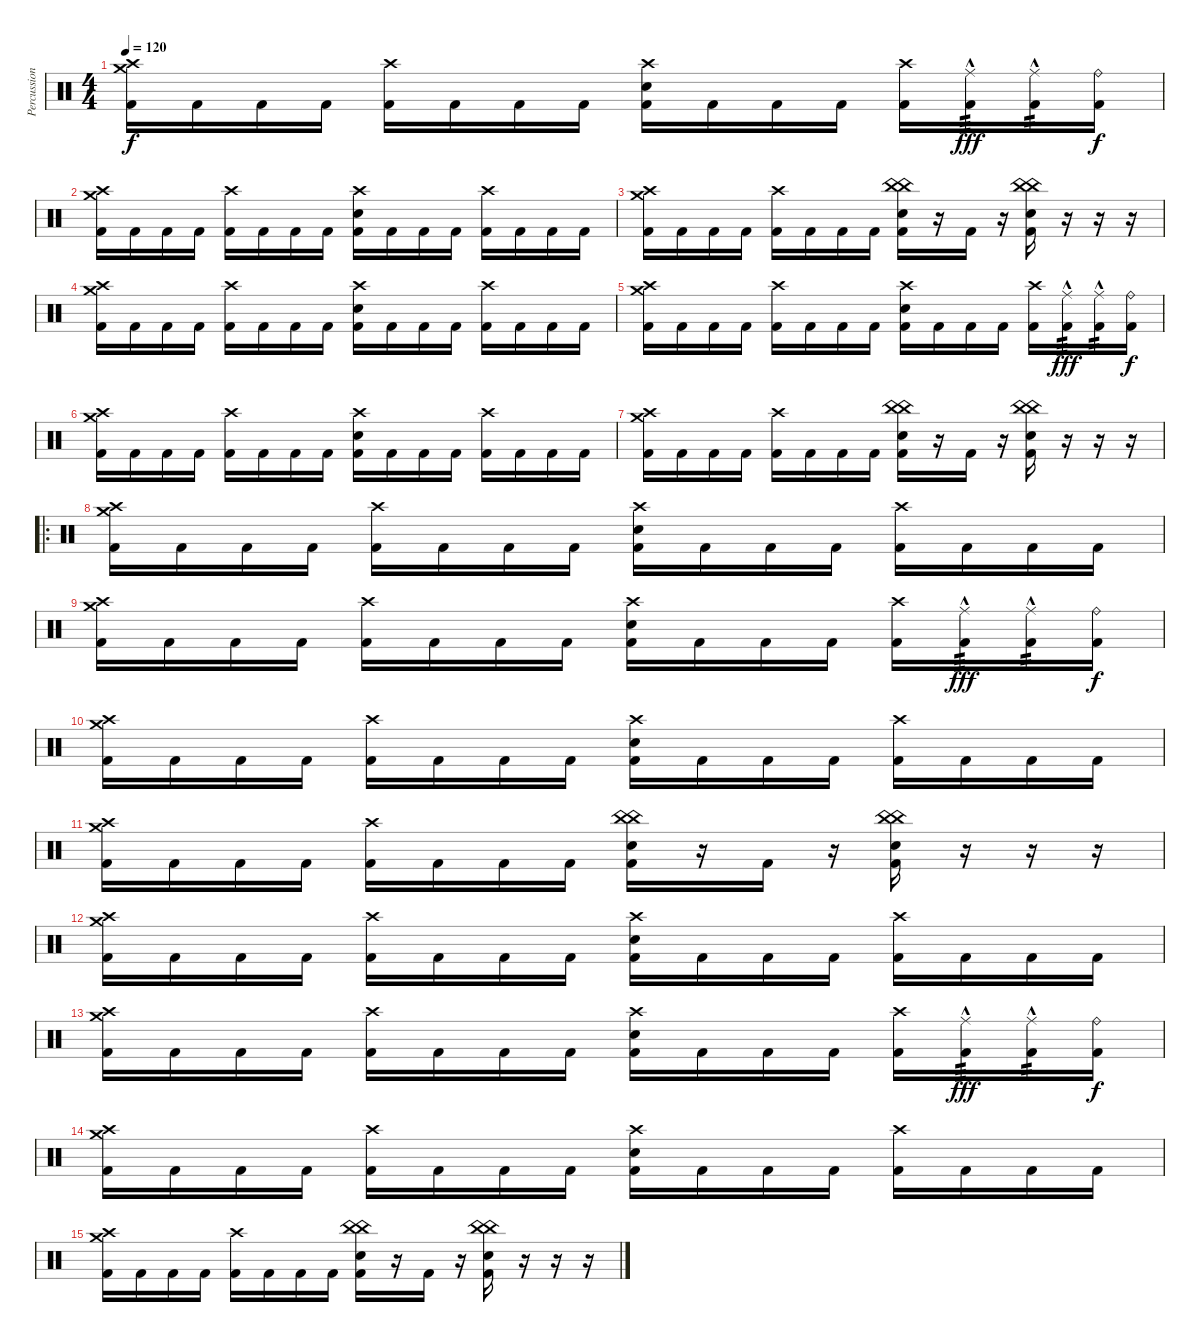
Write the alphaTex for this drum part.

\track ("Percussion" "Percussion") {instrument percussion bank 177}
\staff
\articulation defaults
\ts (4 4)
\tempo 120
\clef neutral
\ks c
("Crash medium (hit)" "Crash high (hit)" "Kick (hit) 2").16{dy f} "Kick (hit) 2".16 "Kick (hit) 2".16 "Kick (hit) 2".16 ("Crash high (hit)" "Kick (hit) 2").16 "Kick (hit) 2".16 "Kick (hit) 2".16 "Kick (hit) 2".16 ("Crash high (hit)" "Electric Snare (hit)" "Kick (hit) 2").16 "Kick (hit) 2".16 "Kick (hit) 2".16 "Kick (hit) 2".16 ("Crash high (hit)" "Kick (hit) 2").16 ("Ride (middle)"{hac} "Kick (hit) 2").16{tp 3 dy fff} ("Ride (middle)"{hac} "Kick (hit) 2").16{tp 2} ("Ride (bell)" "Kick (hit) 2").16{dy f} |
("Crash medium (hit)" "Crash high (hit)" "Kick (hit) 2").16 "Kick (hit) 2".16 "Kick (hit) 2".16 "Kick (hit) 2".16 ("Crash high (hit)" "Kick (hit) 2").16 "Kick (hit) 2".16 "Kick (hit) 2".16 "Kick (hit) 2".16 ("Crash high (hit)" "Electric Snare (hit)" "Kick (hit) 2").16 "Kick (hit) 2".16 "Kick (hit) 2".16 "Kick (hit) 2".16 ("Crash high (hit)" "Kick (hit) 2").16 "Kick (hit) 2".16 "Kick (hit) 2".16 "Kick (hit) 2".16 |
("Crash medium (hit)" "Crash high (hit)" "Kick (hit) 2").16 "Kick (hit) 2".16 "Kick (hit) 2".16 "Kick (hit) 2".16 ("Crash high (hit)" "Kick (hit) 2").16 "Kick (hit) 2".16 "Kick (hit) 2".16 "Kick (hit) 2".16 ("China (hit)" "China (hit)" "Electric Snare (hit)" "Kick (hit) 2").16 r.16 "Kick (hit) 2".16 r.16 ("China (hit)" "China (hit)" "Electric Snare (hit)" "Kick (hit) 2").16 r.16 r.16 r.16 |
("Crash medium (hit)" "Crash high (hit)" "Kick (hit) 2").16 "Kick (hit) 2".16 "Kick (hit) 2".16 "Kick (hit) 2".16 ("Crash high (hit)" "Kick (hit) 2").16 "Kick (hit) 2".16 "Kick (hit) 2".16 "Kick (hit) 2".16 ("Crash high (hit)" "Electric Snare (hit)" "Kick (hit) 2").16 "Kick (hit) 2".16 "Kick (hit) 2".16 "Kick (hit) 2".16 ("Crash high (hit)" "Kick (hit) 2").16 "Kick (hit) 2".16 "Kick (hit) 2".16 "Kick (hit) 2".16 |
("Crash medium (hit)" "Crash high (hit)" "Kick (hit) 2").16 "Kick (hit) 2".16 "Kick (hit) 2".16 "Kick (hit) 2".16 ("Crash high (hit)" "Kick (hit) 2").16 "Kick (hit) 2".16 "Kick (hit) 2".16 "Kick (hit) 2".16 ("Crash high (hit)" "Electric Snare (hit)" "Kick (hit) 2").16 "Kick (hit) 2".16 "Kick (hit) 2".16 "Kick (hit) 2".16 ("Crash high (hit)" "Kick (hit) 2").16 ("Ride (middle)"{hac} "Kick (hit) 2").16{tp 3 dy fff} ("Ride (middle)"{hac} "Kick (hit) 2").16{tp 2} ("Ride (bell)" "Kick (hit) 2").16{dy f} |
("Crash medium (hit)" "Crash high (hit)" "Kick (hit) 2").16 "Kick (hit) 2".16 "Kick (hit) 2".16 "Kick (hit) 2".16 ("Crash high (hit)" "Kick (hit) 2").16 "Kick (hit) 2".16 "Kick (hit) 2".16 "Kick (hit) 2".16 ("Crash high (hit)" "Electric Snare (hit)" "Kick (hit) 2").16 "Kick (hit) 2".16 "Kick (hit) 2".16 "Kick (hit) 2".16 ("Crash high (hit)" "Kick (hit) 2").16 "Kick (hit) 2".16 "Kick (hit) 2".16 "Kick (hit) 2".16 |
("Crash medium (hit)" "Crash high (hit)" "Kick (hit) 2").16 "Kick (hit) 2".16 "Kick (hit) 2".16 "Kick (hit) 2".16 ("Crash high (hit)" "Kick (hit) 2").16 "Kick (hit) 2".16 "Kick (hit) 2".16 "Kick (hit) 2".16 ("China (hit)" "China (hit)" "Electric Snare (hit)" "Kick (hit) 2").16 r.16 "Kick (hit) 2".16 r.16 ("China (hit)" "China (hit)" "Electric Snare (hit)" "Kick (hit) 2").16 r.16 r.16 r.16 |
\ro
("Crash medium (hit)" "Crash high (hit)" "Kick (hit) 2").16 "Kick (hit) 2".16 "Kick (hit) 2".16 "Kick (hit) 2".16 ("Crash high (hit)" "Kick (hit) 2").16 "Kick (hit) 2".16 "Kick (hit) 2".16 "Kick (hit) 2".16 ("Crash high (hit)" "Electric Snare (hit)" "Kick (hit) 2").16 "Kick (hit) 2".16 "Kick (hit) 2".16 "Kick (hit) 2".16 ("Crash high (hit)" "Kick (hit) 2").16 "Kick (hit) 2".16 "Kick (hit) 2".16 "Kick (hit) 2".16 |
("Crash medium (hit)" "Crash high (hit)" "Kick (hit) 2").16 "Kick (hit) 2".16 "Kick (hit) 2".16 "Kick (hit) 2".16 ("Crash high (hit)" "Kick (hit) 2").16 "Kick (hit) 2".16 "Kick (hit) 2".16 "Kick (hit) 2".16 ("Crash high (hit)" "Electric Snare (hit)" "Kick (hit) 2").16 "Kick (hit) 2".16 "Kick (hit) 2".16 "Kick (hit) 2".16 ("Crash high (hit)" "Kick (hit) 2").16 ("Ride (middle)"{hac} "Kick (hit) 2").16{tp 3 dy fff} ("Ride (middle)"{hac} "Kick (hit) 2").16{tp 2} ("Ride (bell)" "Kick (hit) 2").16{dy f} |
("Crash medium (hit)" "Crash high (hit)" "Kick (hit) 2").16 "Kick (hit) 2".16 "Kick (hit) 2".16 "Kick (hit) 2".16 ("Crash high (hit)" "Kick (hit) 2").16 "Kick (hit) 2".16 "Kick (hit) 2".16 "Kick (hit) 2".16 ("Crash high (hit)" "Electric Snare (hit)" "Kick (hit) 2").16 "Kick (hit) 2".16 "Kick (hit) 2".16 "Kick (hit) 2".16 ("Crash high (hit)" "Kick (hit) 2").16 "Kick (hit) 2".16 "Kick (hit) 2".16 "Kick (hit) 2".16 |
("Crash medium (hit)" "Crash high (hit)" "Kick (hit) 2").16 "Kick (hit) 2".16 "Kick (hit) 2".16 "Kick (hit) 2".16 ("Crash high (hit)" "Kick (hit) 2").16 "Kick (hit) 2".16 "Kick (hit) 2".16 "Kick (hit) 2".16 ("China (hit)" "China (hit)" "Electric Snare (hit)" "Kick (hit) 2").16 r.16 "Kick (hit) 2".16 r.16 ("China (hit)" "China (hit)" "Electric Snare (hit)" "Kick (hit) 2").16 r.16 r.16 r.16 |
("Crash medium (hit)" "Crash high (hit)" "Kick (hit) 2").16 "Kick (hit) 2".16 "Kick (hit) 2".16 "Kick (hit) 2".16 ("Crash high (hit)" "Kick (hit) 2").16 "Kick (hit) 2".16 "Kick (hit) 2".16 "Kick (hit) 2".16 ("Crash high (hit)" "Electric Snare (hit)" "Kick (hit) 2").16 "Kick (hit) 2".16 "Kick (hit) 2".16 "Kick (hit) 2".16 ("Crash high (hit)" "Kick (hit) 2").16 "Kick (hit) 2".16 "Kick (hit) 2".16 "Kick (hit) 2".16 |
("Crash medium (hit)" "Crash high (hit)" "Kick (hit) 2").16 "Kick (hit) 2".16 "Kick (hit) 2".16 "Kick (hit) 2".16 ("Crash high (hit)" "Kick (hit) 2").16 "Kick (hit) 2".16 "Kick (hit) 2".16 "Kick (hit) 2".16 ("Crash high (hit)" "Electric Snare (hit)" "Kick (hit) 2").16 "Kick (hit) 2".16 "Kick (hit) 2".16 "Kick (hit) 2".16 ("Crash high (hit)" "Kick (hit) 2").16 ("Ride (middle)"{hac} "Kick (hit) 2").16{tp 3 dy fff} ("Ride (middle)"{hac} "Kick (hit) 2").16{tp 2} ("Ride (bell)" "Kick (hit) 2").16{dy f} |
("Crash medium (hit)" "Crash high (hit)" "Kick (hit) 2").16 "Kick (hit) 2".16 "Kick (hit) 2".16 "Kick (hit) 2".16 ("Crash high (hit)" "Kick (hit) 2").16 "Kick (hit) 2".16 "Kick (hit) 2".16 "Kick (hit) 2".16 ("Crash high (hit)" "Electric Snare (hit)" "Kick (hit) 2").16 "Kick (hit) 2".16 "Kick (hit) 2".16 "Kick (hit) 2".16 ("Crash high (hit)" "Kick (hit) 2").16 "Kick (hit) 2".16 "Kick (hit) 2".16 "Kick (hit) 2".16 |
("Crash medium (hit)" "Crash high (hit)" "Kick (hit) 2").16 "Kick (hit) 2".16 "Kick (hit) 2".16 "Kick (hit) 2".16 ("Crash high (hit)" "Kick (hit) 2").16 "Kick (hit) 2".16 "Kick (hit) 2".16 "Kick (hit) 2".16 ("China (hit)" "China (hit)" "Electric Snare (hit)" "Kick (hit) 2").16 r.16 "Kick (hit) 2".16 r.16 ("China (hit)" "China (hit)" "Electric Snare (hit)" "Kick (hit) 2").16 r.16 r.16 r.16
